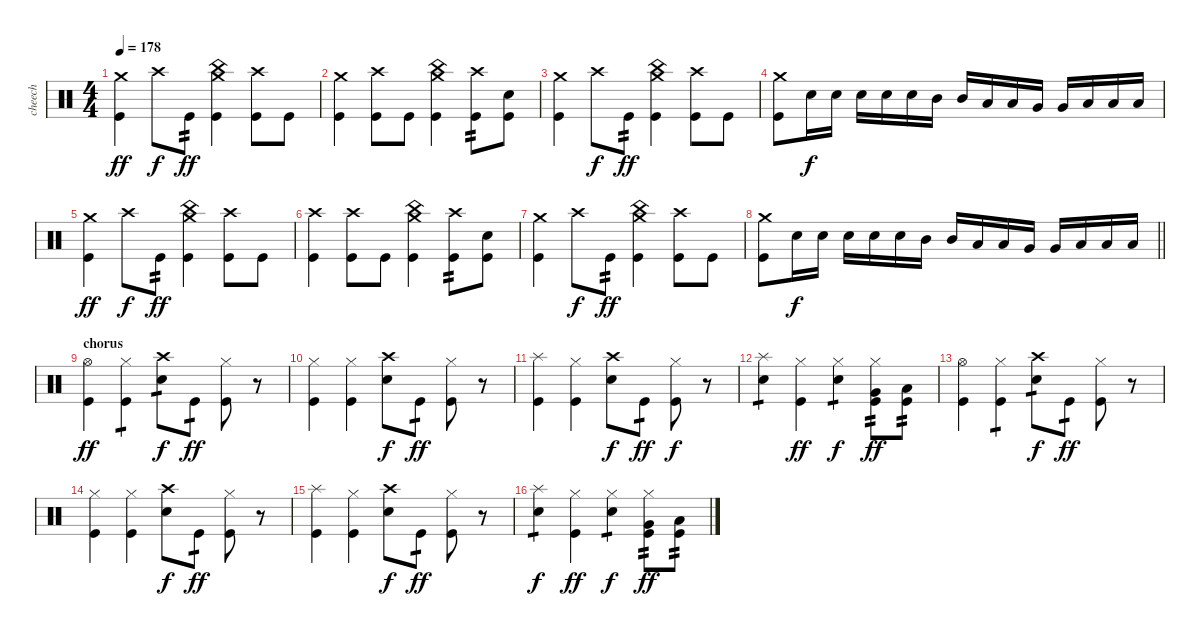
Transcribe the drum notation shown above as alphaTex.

\track ("cheech" "cheech") {solo instrument percussion}
\staff {score}
\articulation defaults
\ts (4 4)
\tempo 178
\clef neutral
\ks c
("Crash medium (hit)" "Kick (hit)").4{dy ff} "Crash high (hit)".8{dy f} "Kick (hit)".8{tp 2 dy ff} ("China (hit)" "Crash medium (hit)" "Kick (hit)").4 ("Crash high (hit)" "Kick (hit)").8 "Kick (hit)".8 |
("Crash medium (hit)" "Kick (hit)").4 ("Crash high (hit)" "Kick (hit)").8 "Kick (hit)".8 ("China (hit)" "Crash medium (hit)" "Kick (hit)").4 ("Crash high (hit)" "Kick (hit)").8{tp 2} ("Electric Snare (hit)" "Kick (hit)").8 |
("Crash medium (hit)" "Kick (hit)").4 "Crash high (hit)".8{dy f} "Kick (hit)".8{tp 2 dy ff} ("China (hit)" "Crash medium (hit)" "Kick (hit)").4 ("Crash high (hit)" "Kick (hit)").8 "Kick (hit)".8 |
("Crash medium (hit)" "Kick (hit)").8 "Electric Snare (hit)".16{dy f} "Electric Snare (hit)".16 "Electric Snare (hit)".16 "Electric Snare (hit)".16 "Electric Snare (hit)".16 "Mid Tom (hit)".16 "Mid Tom (hit)".16 "Low Tom (hit)".16 "Low Tom (hit)".16 "Very Low Tom (hit)".16 "Very Low Tom (hit)".16 "Low Floor Tom (hit)".16 "Low Floor Tom (hit)".16 "Low Floor Tom (hit)".16 |
("Crash medium (hit)" "Kick (hit)").4{dy ff} "Crash high (hit)".8{dy f} "Kick (hit)".8{tp 2 dy ff} ("China (hit)" "Crash medium (hit)" "Kick (hit)").4 ("Crash high (hit)" "Kick (hit)").8 "Kick (hit)".8 |
("Crash high (hit)" "Kick (hit)").4 ("Crash high (hit)" "Kick (hit)").8 "Kick (hit)".8 ("China (hit)" "Crash medium (hit)" "Kick (hit)").4 ("Crash high (hit)" "Kick (hit)").8{tp 2} ("Electric Snare (hit)" "Kick (hit)").8 |
("Crash medium (hit)" "Kick (hit)").4 "Crash high (hit)".8{dy f} "Kick (hit)".8{tp 2 dy ff} ("China (hit)" "Crash medium (hit)" "Kick (hit)").4 ("Crash high (hit)" "Kick (hit)").8 "Kick (hit)".8 |
\barLineRight lightlight
("Crash medium (hit)" "Kick (hit)").8 "Electric Snare (hit)".16{dy f} "Electric Snare (hit)".16 "Electric Snare (hit)".16 "Electric Snare (hit)".16 "Electric Snare (hit)".16 "Mid Tom (hit)".16 "Mid Tom (hit)".16 "Low Tom (hit)".16 "Low Tom (hit)".16 "Very Low Tom (hit)".16 "Very Low Tom (hit)".16 "Low Floor Tom (hit)".16 "Low Floor Tom (hit)".16 "Low Floor Tom (hit)".16 |
\section ("" "chorus")
("Hi-Hat (open)" "Kick (hit)").4{dy ff} ("Hi-Hat (closed)" "Kick (hit)").4{tp 1} ("Crash high (hit)" "Electric Snare (hit)").8{tp 1 dy f} "Kick (hit)".8{tp 1 dy ff} ("Hi-Hat (closed)" "Kick (hit)").8 r.8 |
("Hi-Hat (closed)" "Kick (hit)").4 ("Hi-Hat (closed)" "Kick (hit)").4 ("Crash high (hit)" "Electric Snare (hit)").8{dy f} "Kick (hit)".8{tp 1 dy ff} ("Hi-Hat (closed)" "Kick (hit)").8 r.8 |
("Splash (hit)" "Kick (hit)").4 ("Hi-Hat (closed)" "Kick (hit)").4 ("Crash high (hit)" "Electric Snare (hit)").8{dy f} "Kick (hit)".8{tp 1 dy ff} ("Hi-Hat (closed)" "Kick (hit)").8{dy f} r.8 |
("Splash (hit)" "Electric Snare (hit)").4{tp 1} ("Hi-Hat (closed)" "Kick (hit)").4{dy ff} ("Hi-Hat (closed)" "Electric Snare (hit)").4{tp 1 dy f} ("Hi-Hat (closed)" "Very Low Tom (hit)" "Kick (hit)").8{tp 2 dy ff} ("Low Floor Tom (hit)" "Kick (hit)").8{tp 2} |
("Hi-Hat (open)" "Kick (hit)").4 ("Hi-Hat (closed)" "Kick (hit)").4{tp 1} ("Crash high (hit)" "Electric Snare (hit)").8{tp 1 dy f} "Kick (hit)".8{tp 1 dy ff} ("Hi-Hat (closed)" "Kick (hit)").8 r.8 |
("Hi-Hat (closed)" "Kick (hit)").4 ("Hi-Hat (closed)" "Kick (hit)").4 ("Crash high (hit)" "Electric Snare (hit)").8{dy f} "Kick (hit)".8{tp 1 dy ff} ("Hi-Hat (closed)" "Kick (hit)").8 r.8 |
("Splash (hit)" "Kick (hit)").4 ("Hi-Hat (closed)" "Kick (hit)").4 ("Crash high (hit)" "Electric Snare (hit)").8{dy f} "Kick (hit)".8{tp 1 dy ff} ("Hi-Hat (closed)" "Kick (hit)").8 r.8 |
("Splash (hit)" "Electric Snare (hit)").4{tp 1 dy f} ("Hi-Hat (closed)" "Kick (hit)").4{dy ff} ("Hi-Hat (closed)" "Electric Snare (hit)").4{tp 1 dy f} ("Hi-Hat (closed)" "Very Low Tom (hit)" "Kick (hit)").8{tp 2 dy ff} ("Low Floor Tom (hit)" "Kick (hit)").8{tp 2}
